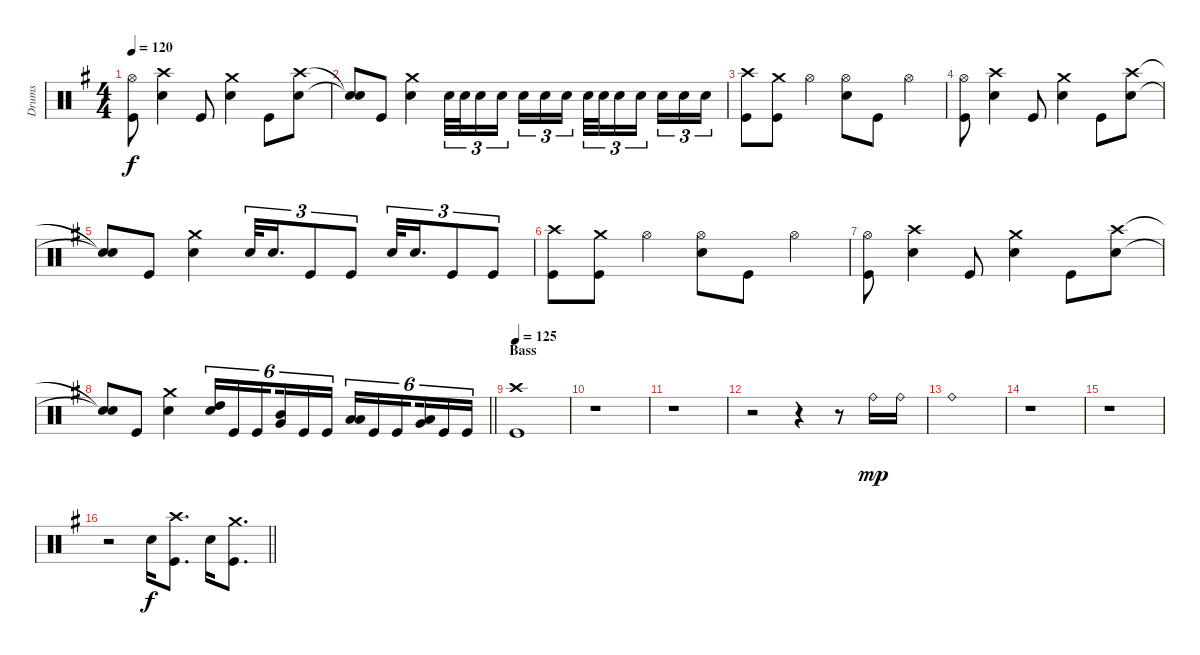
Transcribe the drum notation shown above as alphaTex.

\track ("Drums" "Drums") {instrument percussion}
\staff {score}
\articulation defaults
\ts (4 4)
\tempo 120
\clef neutral
\ks eminor
("Hi-Hat (open)" "Kick (hit)").8{dy f} ("Crash high (hit)" "Snare (hit) 2").4 "Kick (hit)".8 ("Crash medium (hit)" "Snare (hit) 2").4 "Kick (hit)".8 ("Crash high (hit)" "Snare (hit) 2").8 |
("Snare (hit)"{t} "Snare (hit)"{t}).8 "Kick (hit)".8 ("Crash medium (hit)" "Snare (hit) 2").4 "Snare (hit) 2".32{tu (3 2)} "Snare (hit) 2".32{tu (3 2)} "Snare (hit) 2".16{tu (3 2)} "Snare (hit) 2".16{tu (3 2) beam splitsecondary} "Snare (hit) 2".16{tu (3 2)} "Snare (hit) 2".16{tu (3 2)} "Snare (hit) 2".16{tu (3 2)} "Snare (hit) 2".32{tu (3 2)} "Snare (hit) 2".32{tu (3 2)} "Snare (hit) 2".16{tu (3 2)} "Snare (hit) 2".16{tu (3 2) beam splitsecondary} "Snare (hit) 2".16{tu (3 2)} "Snare (hit) 2".16{tu (3 2)} "Snare (hit) 2".16{tu (3 2)} |
("Crash high (hit)" "Kick (hit)").8 ("Crash medium (hit)" "Kick (hit)").8 "Hi-Hat (open)".4 ("Hi-Hat (open)" "Snare (hit) 2").8 "Kick (hit)".8 "Hi-Hat (open)".4 |
("Hi-Hat (open)" "Kick (hit)").8 ("Crash high (hit)" "Snare (hit) 2").4 "Kick (hit)".8 ("Crash medium (hit)" "Snare (hit) 2").4 "Kick (hit)".8 ("Crash high (hit)" "Snare (hit) 2").8 |
("Snare (hit)"{t} "Snare (hit)"{t}).8 "Kick (hit)".8 ("Crash medium (hit)" "Snare (hit) 2").4 "Snare (hit) 2".32{tu (3 2)} "Snare (hit) 2".16{d tu (3 2)} "Kick (hit)".8{tu (3 2)} "Kick (hit)".8{tu (3 2)} "Snare (hit) 2".32{tu (3 2)} "Snare (hit) 2".16{d tu (3 2)} "Kick (hit)".8{tu (3 2)} "Kick (hit)".8{tu (3 2)} |
("Crash high (hit)" "Kick (hit)").8 ("Crash medium (hit)" "Kick (hit)").8 "Hi-Hat (open)".4 ("Hi-Hat (open)" "Snare (hit) 2").8 "Kick (hit)".8 "Hi-Hat (open)".4 |
("Hi-Hat (open)" "Kick (hit)").8 ("Crash high (hit)" "Snare (hit) 2").4 "Kick (hit)".8 ("Crash medium (hit)" "Snare (hit) 2").4 "Kick (hit)".8 ("Crash high (hit)" "Snare (hit) 2").8 |
\barLineRight lightlight
("Snare (hit)"{t} "Snare (hit)"{t}).8 "Kick (hit)".8 ("Crash medium (hit)" "Snare (hit) 2").4 ("High Tom (hit)" "Snare (hit) 2").16{tu (6 4)} "Kick (hit)".16{tu (6 4)} "Kick (hit)".16{tu (6 4) beam splitsecondary} ("Mid Tom (hit)" "Very Low Tom (hit)").16{tu (6 4)} "Kick (hit)".16{tu (6 4)} "Kick (hit)".16{tu (6 4)} ("Low Tom (hit)" "Low Floor Tom (hit)").16{tu (6 4)} "Kick (hit)".16{tu (6 4)} "Kick (hit)".16{tu (6 4) beam splitsecondary} ("Very Low Tom (hit)" "Low Floor Tom (hit)").16{tu (6 4)} "Kick (hit)".16{tu (6 4)} "Kick (hit)".16{tu (6 4)} |
\section ("" "Bass")
\tempo 125
("Crash high (hit)" "Kick (hit)").1 |
r.1 |
r.1 |
r.2 r.4 r.8 "Ride (bell)".16{dy mp} "Ride (bell)".16 |
"Ride (bell)".1 |
r.1 |
r.1 |
\barLineRight lightlight
r.2 "Snare (hit) 2".16{dy f} ("Crash high (hit)" "Kick (hit)").8{d} "Snare (hit) 2".16 ("Crash medium (hit)" "Kick (hit)").8{d}
